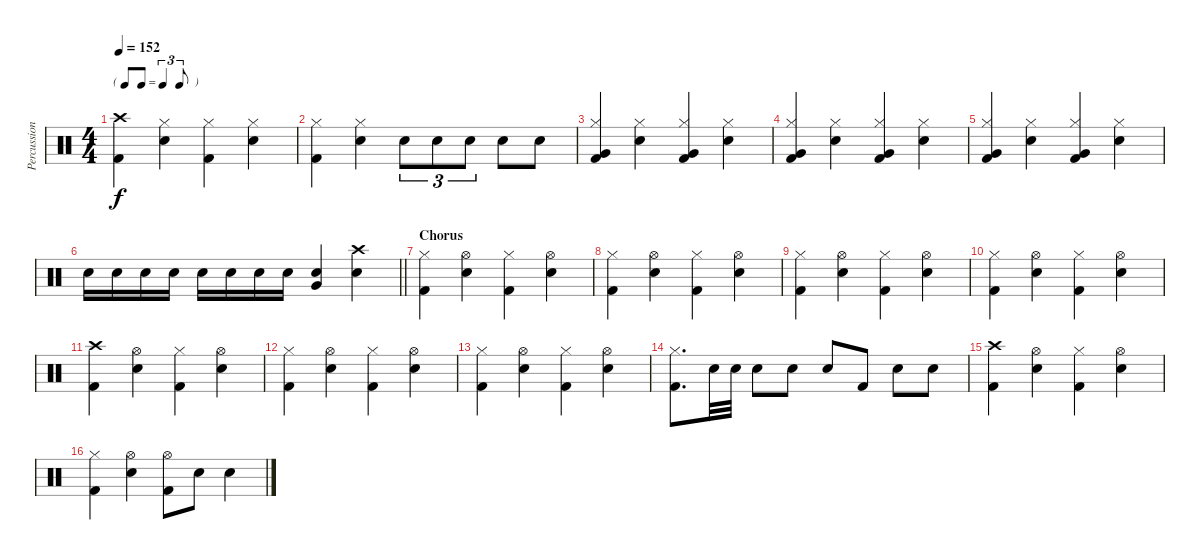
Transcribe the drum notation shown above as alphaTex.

\track ("Percussion" "Percussion") {instrument percussion}
\staff {score}
\articulation defaults
\ts (4 4)
\tf triplet8th
\tempo 152
\clef neutral
\ks c
("Crash high (hit)" "Kick (hit) 2").4{dy f} ("Hi-Hat (closed)" "Snare (hit) 2").4 ("Hi-Hat (closed)" "Kick (hit) 2").4 ("Hi-Hat (closed)" "Snare (hit) 2").4 |
("Hi-Hat (closed)" "Kick (hit) 2").4 ("Hi-Hat (closed)" "Snare (hit) 2").4 "Snare (hit) 2".8{tu (3 2)} "Snare (hit) 2".8{tu (3 2)} "Snare (hit) 2".8{tu (3 2)} "Snare (hit) 2".8 "Snare (hit) 2".8 |
("Hi-Hat (closed)" "Very Low Tom (hit)" "Kick (hit) 2").4 ("Hi-Hat (closed)" "Snare (hit) 2").4 ("Hi-Hat (closed)" "Kick (hit) 2" "Very Low Tom (hit)").4 ("Hi-Hat (closed)" "Snare (hit) 2").4 |
("Hi-Hat (closed)" "Very Low Tom (hit)" "Kick (hit) 2").4 ("Hi-Hat (closed)" "Snare (hit) 2").4 ("Hi-Hat (closed)" "Kick (hit) 2" "Very Low Tom (hit)").4 ("Hi-Hat (closed)" "Snare (hit) 2").4 |
("Hi-Hat (closed)" "Very Low Tom (hit)" "Kick (hit) 2").4 ("Hi-Hat (closed)" "Snare (hit) 2").4 ("Hi-Hat (closed)" "Kick (hit) 2" "Very Low Tom (hit)").4 ("Hi-Hat (closed)" "Snare (hit) 2").4 |
\barLineRight lightlight "Snare (hit) 2".16 "Snare (hit) 2".16 "Snare (hit) 2".16 "Snare (hit) 2".16 "Snare (hit) 2".16 "Snare (hit) 2".16 "Snare (hit) 2".16 "Snare (hit) 2".16
("Snare (hit) 2" "Very Low Tom (hit)").4 ("Crash high (hit)" "Snare (hit) 2").4 |
\section ("" "Chorus")
("Hi-Hat (closed)" "Kick (hit) 2").4 ("Hi-Hat (open)" "Snare (hit) 2").4 ("Hi-Hat (closed)" "Kick (hit) 2").4 ("Hi-Hat (open)" "Snare (hit) 2").4 |
("Hi-Hat (closed)" "Kick (hit) 2").4 ("Hi-Hat (open)" "Snare (hit) 2").4 ("Hi-Hat (closed)" "Kick (hit) 2").4 ("Hi-Hat (open)" "Snare (hit) 2").4 |
("Hi-Hat (closed)" "Kick (hit) 2").4 ("Hi-Hat (open)" "Snare (hit) 2").4 ("Hi-Hat (closed)" "Kick (hit) 2").4 ("Hi-Hat (open)" "Snare (hit) 2").4 |
("Hi-Hat (closed)" "Kick (hit) 2").4 ("Hi-Hat (open)" "Snare (hit) 2").4 ("Hi-Hat (closed)" "Kick (hit) 2").4 ("Hi-Hat (open)" "Snare (hit) 2").4 |
("Crash high (hit)" "Kick (hit) 2").4 ("Hi-Hat (open)" "Snare (hit) 2").4 ("Hi-Hat (closed)" "Kick (hit) 2").4 ("Hi-Hat (open)" "Snare (hit) 2").4 |
("Hi-Hat (closed)" "Kick (hit) 2").4 ("Hi-Hat (open)" "Snare (hit) 2").4 ("Hi-Hat (closed)" "Kick (hit) 2").4 ("Hi-Hat (open)" "Snare (hit) 2").4 |
("Hi-Hat (closed)" "Kick (hit) 2").4 ("Hi-Hat (open)" "Snare (hit) 2").4 ("Hi-Hat (closed)" "Kick (hit) 2").4 ("Hi-Hat (open)" "Snare (hit) 2").4 |
("Hi-Hat (closed)" "Kick (hit) 2").8{d} "Snare (hit) 2".32{beam merge} "Snare (hit) 2".32 "Snare (hit) 2".8 "Snare (hit) 2".8 "Snare (hit) 2".8 "Kick (hit) 2".8 "Snare (hit) 2".8 "Snare (hit) 2".8 |
("Crash high (hit)" "Kick (hit) 2").4 ("Hi-Hat (open)" "Snare (hit) 2").4 ("Hi-Hat (closed)" "Kick (hit) 2").4 ("Hi-Hat (open)" "Snare (hit) 2").4 |
("Hi-Hat (closed)" "Kick (hit) 2").4 ("Hi-Hat (open)" "Snare (hit) 2").4 ("Hi-Hat (open)" "Kick (hit) 2").8 "Snare (hit) 2".8 "Snare (hit) 2".4
